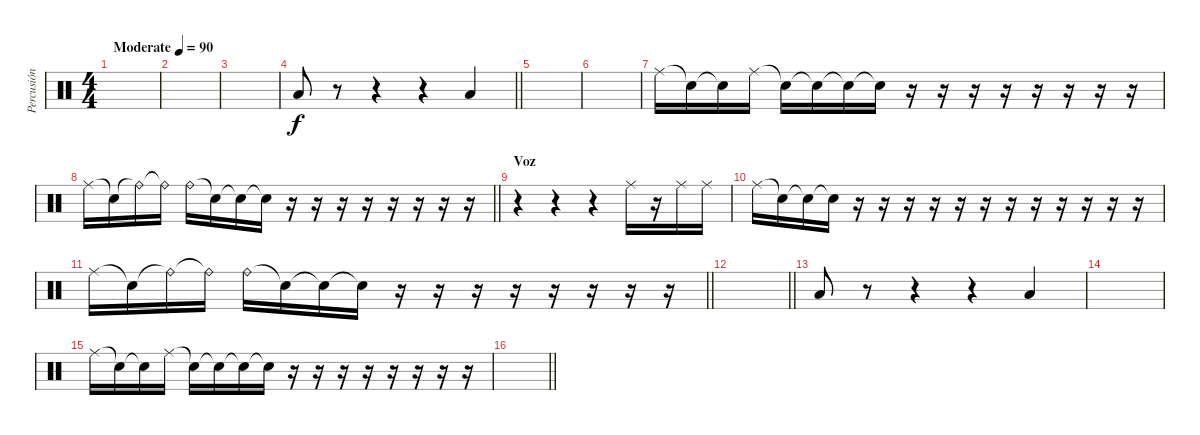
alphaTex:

\track ("Percusión" "Percusión") {instrument percussion}
\staff {score}
\articulation defaults
\ts (4 4)
\tempo (90 "Moderate")
\clef neutral
\ks c
|
|
|
\barLineRight lightlight "Low Tom (hit)".8
r.8 r.4 r.4 "Low Tom (hit)".4 |
\section ("" "")
|
|
"Ride (middle)".16 "Snare (hit)"{t}.16 "Snare (hit)"{t}.16 "Ride (middle)".16 "Snare (hit)"{t}.16 "Snare (hit)"{t}.16 "Snare (hit)"{t}.16 "Snare (hit)"{t}.16 r.16 r.16 r.16 r.16 r.16 r.16 r.16 r.16 |
\barLineRight lightlight "Ride (middle)".16 "Snare (hit)"{t}.16 "Ride (bell)"{t}.16 "Ride (bell)"{t}.16 "Ride (bell)".16 "Snare (hit)"{t}.16 "Snare (hit)"{t}.16 "Snare (hit)"{t}.16
r.16 r.16 r.16 r.16 r.16 r.16 r.16 r.16 |
\section ("" "Voz")
r.4 r.4 r.4 "Ride (middle)".16 r.16 "Ride (middle)".16 "Ride (middle)".16 |
"Ride (middle)".16 "Snare (hit)"{t}.16 "Snare (hit)"{t}.16 "Snare (hit)"{t}.16 r.16 r.16 r.16 r.16 r.16 r.16 r.16 r.16 r.16 r.16 r.16 r.16 |
\barLineRight lightlight "Ride (middle)".16 "Snare (hit)"{t}.16 "Ride (bell)"{t}.16 "Ride (bell)"{t}.16 "Ride (bell)".16 "Snare (hit)"{t}.16 "Snare (hit)"{t}.16 "Snare (hit)"{t}.16
r.16 r.16 r.16 r.16 r.16 r.16 r.16 r.16 |
\barLineRight lightlight
|
\section ("" "")
"Low Tom (hit)".8 r.8 r.4 r.4 "Low Tom (hit)".4 |
|
"Ride (middle)".16 "Snare (hit)"{t}.16 "Snare (hit)"{t}.16 "Ride (middle)".16 "Snare (hit)"{t}.16 "Snare (hit)"{t}.16 "Snare (hit)"{t}.16 "Snare (hit)"{t}.16 r.16 r.16 r.16 r.16 r.16 r.16 r.16 r.16 |
\barLineRight lightlight
